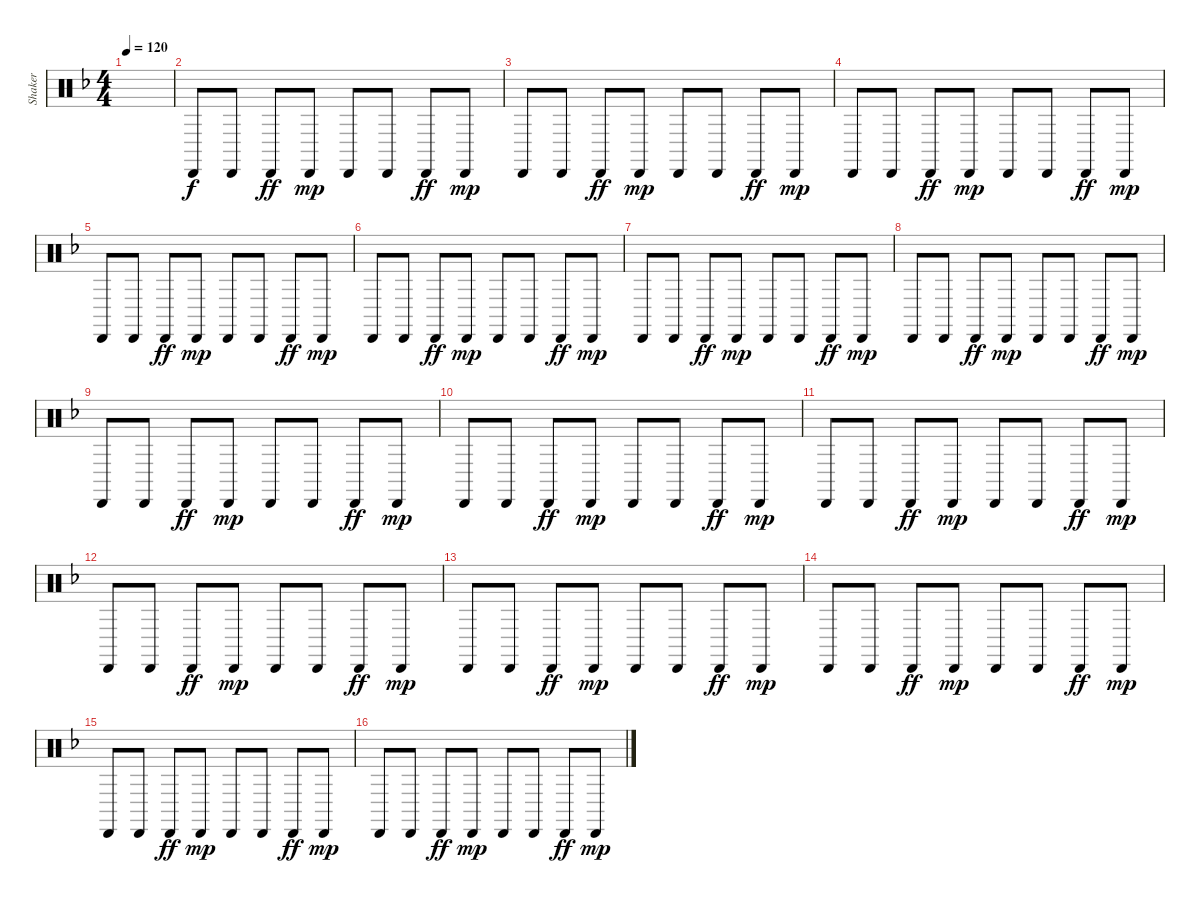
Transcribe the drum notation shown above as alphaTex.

\track ("Shaker" "Shaker") {instrument percussion}
\staff {score}
\articulation defaults
\ts (4 4)
\tempo 120
\clef neutral
\ks f
|
"Cabasa (hit)".8 "Cabasa (hit)".8 "Cabasa (hit)".8{dy ff} "Cabasa (hit)".8{dy mp} "Cabasa (hit)".8 "Cabasa (hit)".8 "Cabasa (hit)".8{dy ff} "Cabasa (hit)".8{dy mp} |
"Cabasa (hit)".8 "Cabasa (hit)".8 "Cabasa (hit)".8{dy ff} "Cabasa (hit)".8{dy mp} "Cabasa (hit)".8 "Cabasa (hit)".8 "Cabasa (hit)".8{dy ff} "Cabasa (hit)".8{dy mp} |
"Cabasa (hit)".8 "Cabasa (hit)".8 "Cabasa (hit)".8{dy ff} "Cabasa (hit)".8{dy mp} "Cabasa (hit)".8 "Cabasa (hit)".8 "Cabasa (hit)".8{dy ff} "Cabasa (hit)".8{dy mp} |
"Cabasa (hit)".8 "Cabasa (hit)".8 "Cabasa (hit)".8{dy ff} "Cabasa (hit)".8{dy mp} "Cabasa (hit)".8 "Cabasa (hit)".8 "Cabasa (hit)".8{dy ff} "Cabasa (hit)".8{dy mp} |
"Cabasa (hit)".8 "Cabasa (hit)".8 "Cabasa (hit)".8{dy ff} "Cabasa (hit)".8{dy mp} "Cabasa (hit)".8 "Cabasa (hit)".8 "Cabasa (hit)".8{dy ff} "Cabasa (hit)".8{dy mp} |
"Cabasa (hit)".8 "Cabasa (hit)".8 "Cabasa (hit)".8{dy ff} "Cabasa (hit)".8{dy mp} "Cabasa (hit)".8 "Cabasa (hit)".8 "Cabasa (hit)".8{dy ff} "Cabasa (hit)".8{dy mp} |
"Cabasa (hit)".8 "Cabasa (hit)".8 "Cabasa (hit)".8{dy ff} "Cabasa (hit)".8{dy mp} "Cabasa (hit)".8 "Cabasa (hit)".8 "Cabasa (hit)".8{dy ff} "Cabasa (hit)".8{dy mp} |
"Cabasa (hit)".8 "Cabasa (hit)".8 "Cabasa (hit)".8{dy ff} "Cabasa (hit)".8{dy mp} "Cabasa (hit)".8 "Cabasa (hit)".8 "Cabasa (hit)".8{dy ff} "Cabasa (hit)".8{dy mp} |
"Cabasa (hit)".8 "Cabasa (hit)".8 "Cabasa (hit)".8{dy ff} "Cabasa (hit)".8{dy mp} "Cabasa (hit)".8 "Cabasa (hit)".8 "Cabasa (hit)".8{dy ff} "Cabasa (hit)".8{dy mp} |
"Cabasa (hit)".8 "Cabasa (hit)".8 "Cabasa (hit)".8{dy ff} "Cabasa (hit)".8{dy mp} "Cabasa (hit)".8 "Cabasa (hit)".8 "Cabasa (hit)".8{dy ff} "Cabasa (hit)".8{dy mp} |
"Cabasa (hit)".8 "Cabasa (hit)".8 "Cabasa (hit)".8{dy ff} "Cabasa (hit)".8{dy mp} "Cabasa (hit)".8 "Cabasa (hit)".8 "Cabasa (hit)".8{dy ff} "Cabasa (hit)".8{dy mp} |
"Cabasa (hit)".8 "Cabasa (hit)".8 "Cabasa (hit)".8{dy ff} "Cabasa (hit)".8{dy mp} "Cabasa (hit)".8 "Cabasa (hit)".8 "Cabasa (hit)".8{dy ff} "Cabasa (hit)".8{dy mp} |
"Cabasa (hit)".8 "Cabasa (hit)".8 "Cabasa (hit)".8{dy ff} "Cabasa (hit)".8{dy mp} "Cabasa (hit)".8 "Cabasa (hit)".8 "Cabasa (hit)".8{dy ff} "Cabasa (hit)".8{dy mp} |
"Cabasa (hit)".8 "Cabasa (hit)".8 "Cabasa (hit)".8{dy ff} "Cabasa (hit)".8{dy mp} "Cabasa (hit)".8 "Cabasa (hit)".8 "Cabasa (hit)".8{dy ff} "Cabasa (hit)".8{dy mp} |
"Cabasa (hit)".8 "Cabasa (hit)".8 "Cabasa (hit)".8{dy ff} "Cabasa (hit)".8{dy mp} "Cabasa (hit)".8 "Cabasa (hit)".8 "Cabasa (hit)".8{dy ff} "Cabasa (hit)".8{dy mp}
